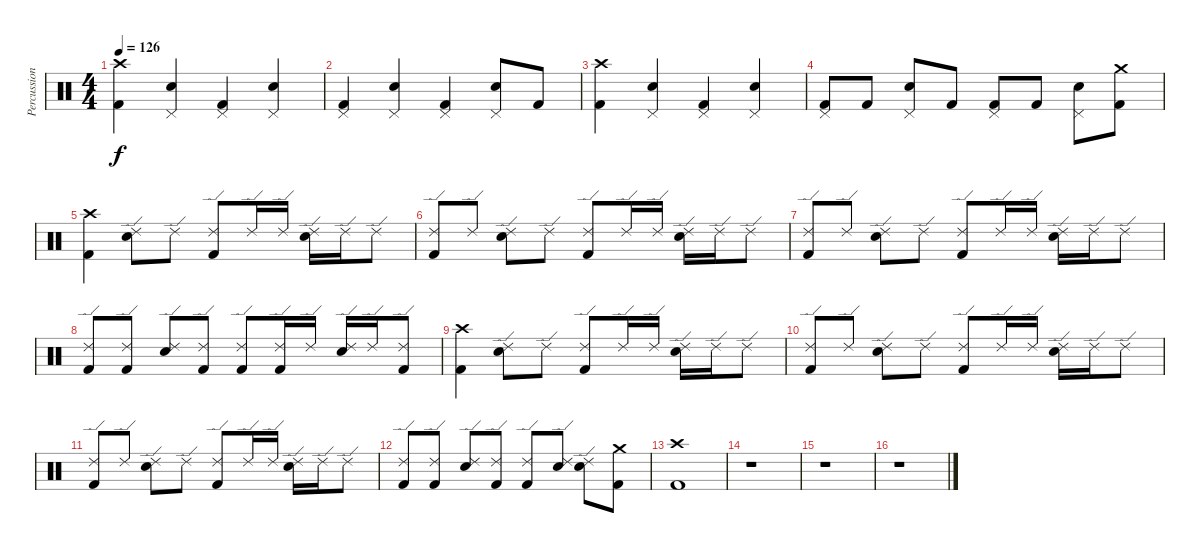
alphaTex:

\track ("Percussion" "Percussion") {instrument percussion}
\staff {score}
\articulation defaults
\ts (4 4)
\tempo 126
\clef neutral
\ks c
("Crash high (hit)" "Kick (hit) 2").4{dy f} ("Pedal Hi-Hat (hit)" "Snare (hit) 2").4 ("Pedal Hi-Hat (hit)" "Kick (hit) 2").4 ("Pedal Hi-Hat (hit)" "Snare (hit) 2").4 |
("Pedal Hi-Hat (hit)" "Kick (hit) 2").4 ("Pedal Hi-Hat (hit)" "Snare (hit) 2").4 ("Pedal Hi-Hat (hit)" "Kick (hit) 2").4 ("Pedal Hi-Hat (hit)" "Snare (hit) 2").8 "Kick (hit) 2".8 |
("Crash high (hit)" "Kick (hit) 2").4 ("Pedal Hi-Hat (hit)" "Snare (hit) 2").4 ("Pedal Hi-Hat (hit)" "Kick (hit) 2").4 ("Pedal Hi-Hat (hit)" "Snare (hit) 2").4 |
("Pedal Hi-Hat (hit)" "Kick (hit) 2").8 "Kick (hit) 2".8 ("Pedal Hi-Hat (hit)" "Snare (hit) 2").8 "Kick (hit) 2".8 ("Pedal Hi-Hat (hit)" "Kick (hit) 2").8 "Kick (hit) 2".8 ("Pedal Hi-Hat (hit)" "Snare (hit) 2").8 ("Crash medium (hit)" "Kick (hit) 2").8 |
("Crash high (hit)" "Kick (hit) 2").4 ("Ride (edge) 2" "Snare (hit) 2").8 "Ride (edge) 2".8 ("Ride (edge) 2" "Kick (hit) 2").8 "Ride (edge) 2".16 "Ride (edge) 2".16 ("Ride (edge) 2" "Snare (hit) 2").16 "Ride (edge) 2".16 "Ride (edge) 2".8 |
("Ride (edge) 2" "Kick (hit) 2").8 "Ride (edge) 2".8 ("Ride (edge) 2" "Snare (hit) 2").8 "Ride (edge) 2".8 ("Ride (edge) 2" "Kick (hit) 2").8 "Ride (edge) 2".16 "Ride (edge) 2".16 ("Ride (edge) 2" "Snare (hit) 2").16 "Ride (edge) 2".16 "Ride (edge) 2".8 |
("Ride (edge) 2" "Kick (hit) 2").8 "Ride (edge) 2".8 ("Ride (edge) 2" "Snare (hit) 2").8 "Ride (edge) 2".8 ("Ride (edge) 2" "Kick (hit) 2").8 "Ride (edge) 2".16 "Ride (edge) 2".16 ("Ride (edge) 2" "Snare (hit) 2").16 "Ride (edge) 2".16 "Ride (edge) 2".8 |
("Ride (edge) 2" "Kick (hit) 2").8 ("Ride (edge) 2" "Kick (hit) 2").8 ("Ride (edge) 2" "Snare (hit) 2").8 ("Ride (edge) 2" "Kick (hit) 2").8 ("Ride (edge) 2" "Kick (hit) 2").8 ("Ride (edge) 2" "Kick (hit) 2").16 "Ride (edge) 2".16 ("Ride (edge) 2" "Snare (hit) 2").16 "Ride (edge) 2".16 ("Ride (edge) 2" "Kick (hit) 2").8 |
("Crash high (hit)" "Kick (hit) 2").4 ("Ride (edge) 2" "Snare (hit) 2").8 "Ride (edge) 2".8 ("Ride (edge) 2" "Kick (hit) 2").8 "Ride (edge) 2".16 "Ride (edge) 2".16 ("Ride (edge) 2" "Snare (hit) 2").16 "Ride (edge) 2".16 "Ride (edge) 2".8 |
("Ride (edge) 2" "Kick (hit) 2").8 "Ride (edge) 2".8 ("Ride (edge) 2" "Snare (hit) 2").8 "Ride (edge) 2".8 ("Ride (edge) 2" "Kick (hit) 2").8 "Ride (edge) 2".16 "Ride (edge) 2".16 ("Ride (edge) 2" "Snare (hit) 2").16 "Ride (edge) 2".16 "Ride (edge) 2".8 |
("Ride (edge) 2" "Kick (hit) 2").8 "Ride (edge) 2".8 ("Ride (edge) 2" "Snare (hit) 2").8 "Ride (edge) 2".8 ("Ride (edge) 2" "Kick (hit) 2").8 "Ride (edge) 2".16 "Ride (edge) 2".16 ("Ride (edge) 2" "Snare (hit) 2").16 "Ride (edge) 2".16 "Ride (edge) 2".8 |
("Ride (edge) 2" "Kick (hit) 2").8 ("Ride (edge) 2" "Kick (hit) 2").8 ("Ride (edge) 2" "Snare (hit) 2").8 ("Ride (edge) 2" "Kick (hit) 2").8 ("Ride (edge) 2" "Kick (hit) 2").8 ("Ride (edge) 2" "Snare (hit) 2").8 ("Ride (edge) 2" "Snare (hit) 2").8 ("Crash medium (hit)" "Kick (hit) 2").8 |
("Crash high (hit)" "Kick (hit) 2").1 |
r.1 |
r.1 |
r.1
